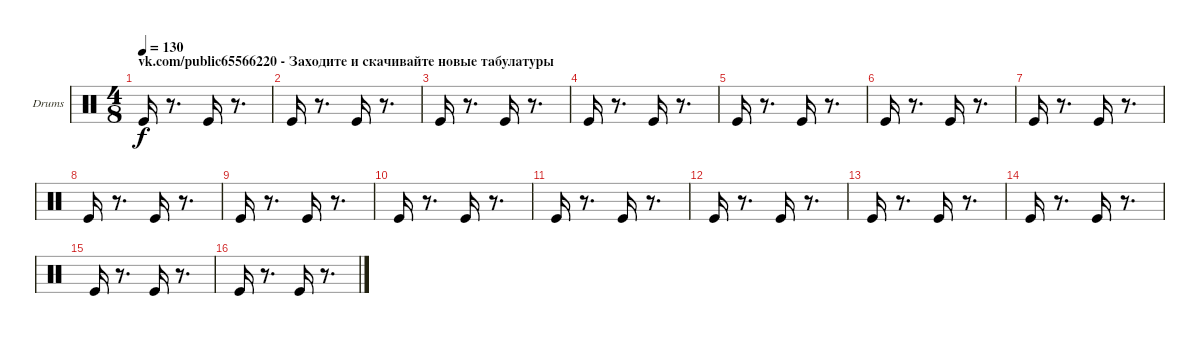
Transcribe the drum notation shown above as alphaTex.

\bracketExtendMode groupsimilarinstruments
\firstSystemTrackNameOrientation horizontal
\otherSystemsTrackNameOrientation horizontal
\track ("Ударные" "Drums") {instrument percussion}
\staff {score}
\articulation defaults
\ts (4 8)
\beaming (8 2 2)
\section ("" "vk.com/public65566220 - Заходите и скачивайте новые табулатуры")
\tempo 130
\clef neutral
\ks c "Kick (hit)".16{dy f}
r.8{d} "Kick (hit)".16 r.8{d} |
"Kick (hit)".16 r.8{d} "Kick (hit)".16 r.8{d} |
"Kick (hit)".16 r.8{d} "Kick (hit)".16 r.8{d} |
"Kick (hit)".16 r.8{d} "Kick (hit)".16 r.8{d} |
"Kick (hit)".16 r.8{d} "Kick (hit)".16 r.8{d} |
"Kick (hit)".16 r.8{d} "Kick (hit)".16 r.8{d} |
"Kick (hit)".16 r.8{d} "Kick (hit)".16 r.8{d} |
"Kick (hit)".16 r.8{d} "Kick (hit)".16 r.8{d} |
"Kick (hit)".16 r.8{d} "Kick (hit)".16 r.8{d} |
"Kick (hit)".16 r.8{d} "Kick (hit)".16 r.8{d} |
"Kick (hit)".16 r.8{d} "Kick (hit)".16 r.8{d} |
"Kick (hit)".16 r.8{d} "Kick (hit)".16 r.8{d} |
"Kick (hit)".16 r.8{d} "Kick (hit)".16 r.8{d} |
"Kick (hit)".16 r.8{d} "Kick (hit)".16 r.8{d} |
"Kick (hit)".16 r.8{d} "Kick (hit)".16 r.8{d} |
"Kick (hit)".16 r.8{d} "Kick (hit)".16 r.8{d}
